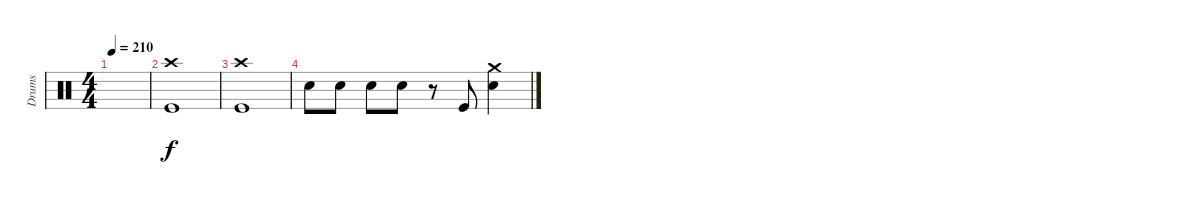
\track ("Drums" "Drums") {instrument percussion}
\staff {score}
\articulation defaults
\ts (4 4)
\tempo 210
\clef neutral
\ks c
|
("Crash high (hit)" "Kick (hit)").1 |
("Crash high (hit)" "Kick (hit)").1 |
"Electric Snare (hit)".8 "Electric Snare (hit)".8 "Electric Snare (hit)".8 "Electric Snare (hit)".8 r.8 "Kick (hit)".8 ("Crash medium (hit)" "Electric Snare (hit)").4
